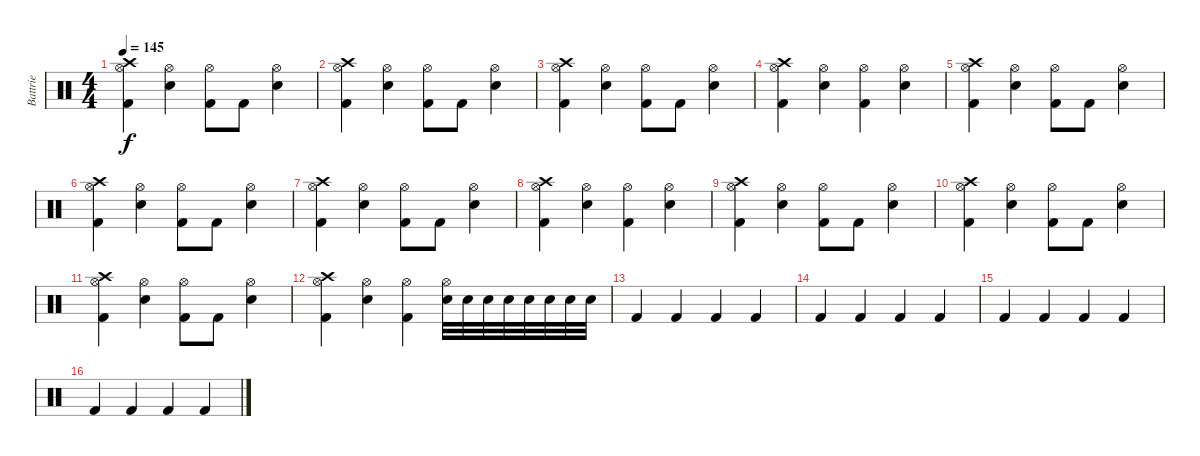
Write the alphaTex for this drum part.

\track ("Battrie" "Battrie") {instrument percussion}
\staff {score}
\articulation defaults
\ts (4 4)
\tempo 145
\clef neutral
\ks c
("Hi-Hat (open)" "Kick (hit) 2" "Crash high (hit)").4{dy f} ("Hi-Hat (open)" "Snare (hit) 2").4 ("Hi-Hat (open)" "Kick (hit) 2").8 "Kick (hit) 2".8 ("Hi-Hat (open)" "Snare (hit) 2").4 |
("Hi-Hat (open)" "Kick (hit) 2" "Crash high (hit)").4 ("Hi-Hat (open)" "Snare (hit) 2").4 ("Hi-Hat (open)" "Kick (hit) 2").8 "Kick (hit) 2".8 ("Hi-Hat (open)" "Snare (hit) 2").4 |
("Hi-Hat (open)" "Kick (hit) 2" "Crash high (hit)").4 ("Hi-Hat (open)" "Snare (hit) 2").4 ("Hi-Hat (open)" "Kick (hit) 2").8 "Kick (hit) 2".8 ("Hi-Hat (open)" "Snare (hit) 2").4 |
("Hi-Hat (open)" "Kick (hit) 2" "Crash high (hit)").4 ("Hi-Hat (open)" "Snare (hit) 2").4 ("Hi-Hat (open)" "Kick (hit) 2").4 ("Snare (hit) 2" "Hi-Hat (open)").4 |
("Hi-Hat (open)" "Kick (hit) 2" "Crash high (hit)").4 ("Hi-Hat (open)" "Snare (hit) 2").4 ("Hi-Hat (open)" "Kick (hit) 2").8 "Kick (hit) 2".8 ("Hi-Hat (open)" "Snare (hit) 2").4 |
("Hi-Hat (open)" "Kick (hit) 2" "Crash high (hit)").4 ("Hi-Hat (open)" "Snare (hit) 2").4 ("Hi-Hat (open)" "Kick (hit) 2").8 "Kick (hit) 2".8 ("Hi-Hat (open)" "Snare (hit) 2").4 |
("Hi-Hat (open)" "Kick (hit) 2" "Crash high (hit)").4 ("Hi-Hat (open)" "Snare (hit) 2").4 ("Hi-Hat (open)" "Kick (hit) 2").8 "Kick (hit) 2".8 ("Hi-Hat (open)" "Snare (hit) 2").4 |
("Hi-Hat (open)" "Kick (hit) 2" "Crash high (hit)").4 ("Hi-Hat (open)" "Snare (hit) 2").4 ("Hi-Hat (open)" "Kick (hit) 2").4 ("Snare (hit) 2" "Hi-Hat (open)").4 |
("Hi-Hat (open)" "Kick (hit) 2" "Crash high (hit)").4 ("Hi-Hat (open)" "Snare (hit) 2").4 ("Hi-Hat (open)" "Kick (hit) 2").8 "Kick (hit) 2".8 ("Hi-Hat (open)" "Snare (hit) 2").4 |
("Hi-Hat (open)" "Kick (hit) 2" "Crash high (hit)").4 ("Hi-Hat (open)" "Snare (hit) 2").4 ("Hi-Hat (open)" "Kick (hit) 2").8 "Kick (hit) 2".8 ("Hi-Hat (open)" "Snare (hit) 2").4 |
("Hi-Hat (open)" "Kick (hit) 2" "Crash high (hit)").4 ("Hi-Hat (open)" "Snare (hit) 2").4 ("Hi-Hat (open)" "Kick (hit) 2").8 "Kick (hit) 2".8 ("Hi-Hat (open)" "Snare (hit) 2").4 |
("Hi-Hat (open)" "Kick (hit) 2" "Crash high (hit)").4 ("Hi-Hat (open)" "Snare (hit) 2").4 ("Hi-Hat (open)" "Kick (hit) 2").4 ("Snare (hit) 2" "Hi-Hat (open)").32 "Snare (hit) 2".32 "Snare (hit) 2".32 "Snare (hit) 2".32 "Snare (hit) 2".32 "Snare (hit) 2".32 "Snare (hit) 2".32 "Snare (hit) 2".32 |
"Kick (hit) 2".4 "Kick (hit) 2".4 "Kick (hit) 2".4 "Kick (hit) 2".4 |
"Kick (hit) 2".4 "Kick (hit) 2".4 "Kick (hit) 2".4 "Kick (hit) 2".4 |
"Kick (hit) 2".4 "Kick (hit) 2".4 "Kick (hit) 2".4 "Kick (hit) 2".4 |
"Kick (hit) 2".4 "Kick (hit) 2".4 "Kick (hit) 2".4 "Kick (hit) 2".4
